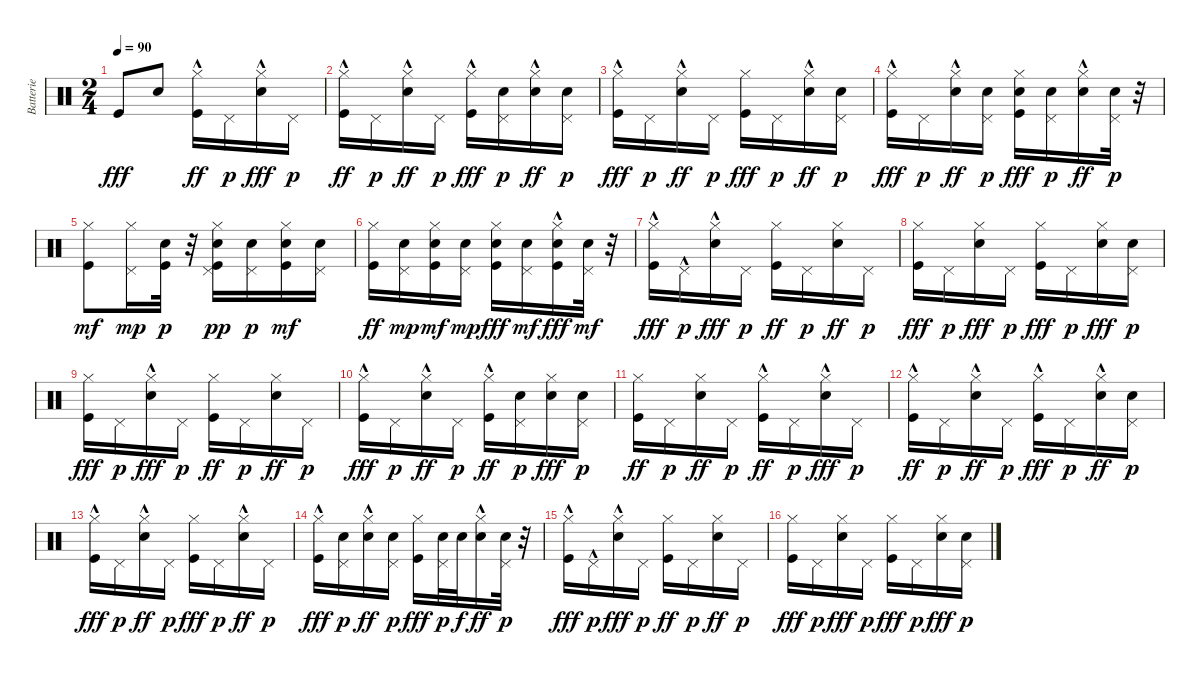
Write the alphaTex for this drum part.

\track ("Batterie" "Batterie") {instrument percussion}
\staff {score}
\articulation defaults
\ts (2 4)
\tempo 90
\clef neutral
\ks c "Kick (hit)".8{dy fff} "Snare (hit) 2".8
("Kick (hit)" "Hi-Hat (closed)"{hac}).16{dy ff} "Pedal Hi-Hat (hit)".16{dy p} ("Snare (hit) 2" "Hi-Hat (closed)"{hac}).16{dy fff} "Pedal Hi-Hat (hit)".16{dy p} |
("Kick (hit)" "Hi-Hat (closed)"{hac}).16{dy ff} "Pedal Hi-Hat (hit)".16{dy p} ("Snare (hit) 2" "Hi-Hat (closed)"{hac}).16{dy ff} "Pedal Hi-Hat (hit)".16{dy p} ("Kick (hit)" "Hi-Hat (closed)"{hac}).16{dy fff} ("Snare (hit) 2" "Pedal Hi-Hat (hit)").16{dy p} ("Snare (hit) 2" "Hi-Hat (closed)"{hac}).16{dy ff} ("Snare (hit) 2" "Pedal Hi-Hat (hit)").16{dy p} |
("Kick (hit)" "Hi-Hat (closed)"{hac}).16{dy fff} "Pedal Hi-Hat (hit)".16{dy p} ("Snare (hit) 2" "Hi-Hat (closed)"{hac}).16{dy ff} "Pedal Hi-Hat (hit)".16{dy p} ("Kick (hit)" "Hi-Hat (closed)").16{dy fff} "Pedal Hi-Hat (hit)".16{dy p} ("Snare (hit) 2" "Hi-Hat (closed)"{hac}).16{dy ff} ("Snare (hit) 2" "Pedal Hi-Hat (hit)").16{dy p} |
("Kick (hit)" "Hi-Hat (closed)"{hac}).16{dy fff} "Pedal Hi-Hat (hit)".16{dy p} ("Snare (hit) 2" "Hi-Hat (closed)"{hac}).16{dy ff} ("Snare (hit) 2" "Pedal Hi-Hat (hit)").16{dy p} ("Kick (hit)" "Snare (hit) 2" "Hi-Hat (closed)").16{dy fff} ("Snare (hit) 2" "Pedal Hi-Hat (hit)").16{dy p} ("Snare (hit) 2" "Hi-Hat (closed)"{hac}).16{dy ff} ("Snare (hit) 2" "Pedal Hi-Hat (hit)").32{dy p} r.32 |
("Kick (hit)" "Hi-Hat (closed)").8{dy mf} ("Hi-Hat (closed)" "Pedal Hi-Hat (hit)").16{dy mp} ("Kick (hit)" "Snare (hit) 2").32{dy p} r.32 ("Kick (hit)" "Snare (hit) 2" "Hi-Hat (closed)" "Pedal Hi-Hat (hit)").16{dy pp} ("Snare (hit) 2" "Pedal Hi-Hat (hit)").16{dy p} ("Kick (hit)" "Snare (hit) 2" "Hi-Hat (closed)").16{dy mf} ("Snare (hit) 2" "Pedal Hi-Hat (hit)").16 |
("Kick (hit)" "Hi-Hat (closed)").16{dy ff} ("Snare (hit) 2" "Pedal Hi-Hat (hit)").16{dy mp} ("Kick (hit)" "Snare (hit) 2" "Hi-Hat (closed)").16{dy mf} ("Snare (hit) 2" "Pedal Hi-Hat (hit)").16{dy mp} ("Kick (hit)" "Snare (hit) 2" "Hi-Hat (closed)").16{dy fff} ("Snare (hit) 2" "Pedal Hi-Hat (hit)").16{dy mf} ("Kick (hit)"{hac} "Snare (hit) 2" "Hi-Hat (closed)").16{dy fff} ("Snare (hit) 2" "Pedal Hi-Hat (hit)").32{dy mf} r.32 |
("Kick (hit)" "Hi-Hat (closed)"{hac}).16{dy fff} "Pedal Hi-Hat (hit)"{hac}.16{dy p} ("Snare (hit) 2" "Hi-Hat (closed)"{hac}).16{dy fff} "Pedal Hi-Hat (hit)".16{dy p} ("Kick (hit)" "Hi-Hat (closed)").16{dy ff} "Pedal Hi-Hat (hit)".16{dy p} ("Snare (hit) 2" "Hi-Hat (closed)").16{dy ff} "Pedal Hi-Hat (hit)".16{dy p} |
("Kick (hit)" "Hi-Hat (closed)").16{dy fff} "Pedal Hi-Hat (hit)".16{dy p} ("Snare (hit) 2" "Hi-Hat (closed)").16{dy fff} "Pedal Hi-Hat (hit)".16{dy p} ("Kick (hit)" "Hi-Hat (closed)").16{dy fff} "Pedal Hi-Hat (hit)".16{dy p} ("Snare (hit) 2" "Hi-Hat (closed)").16{dy fff} ("Snare (hit) 2" "Pedal Hi-Hat (hit)").16{dy p} |
("Kick (hit)" "Hi-Hat (closed)").16{dy fff} "Pedal Hi-Hat (hit)".16{dy p} ("Snare (hit) 2" "Hi-Hat (closed)"{hac}).16{dy fff} "Pedal Hi-Hat (hit)".16{dy p} ("Kick (hit)" "Hi-Hat (closed)").16{dy ff} "Pedal Hi-Hat (hit)".16{dy p} ("Snare (hit) 2" "Hi-Hat (closed)").16{dy ff} "Pedal Hi-Hat (hit)".16{dy p} |
("Kick (hit)" "Hi-Hat (closed)"{hac}).16{dy fff} "Pedal Hi-Hat (hit)".16{dy p} ("Snare (hit) 2" "Hi-Hat (closed)"{hac}).16{dy ff} "Pedal Hi-Hat (hit)".16{dy p} ("Kick (hit)" "Hi-Hat (closed)"{hac}).16{dy ff} ("Snare (hit) 2" "Pedal Hi-Hat (hit)").16{dy p} ("Snare (hit) 2" "Hi-Hat (closed)").16{dy fff} ("Snare (hit) 2" "Pedal Hi-Hat (hit)").16{dy p} |
("Kick (hit)" "Hi-Hat (closed)").16{dy ff} "Pedal Hi-Hat (hit)".16{dy p} ("Snare (hit) 2" "Hi-Hat (closed)").16{dy ff} "Pedal Hi-Hat (hit)".16{dy p} ("Kick (hit)" "Hi-Hat (closed)"{hac}).16{dy ff} "Pedal Hi-Hat (hit)".16{dy p} ("Snare (hit) 2" "Hi-Hat (closed)"{hac}).16{dy fff} "Pedal Hi-Hat (hit)".16{dy p} |
("Kick (hit)" "Hi-Hat (closed)"{hac}).16{dy ff} "Pedal Hi-Hat (hit)".16{dy p} ("Snare (hit) 2" "Hi-Hat (closed)"{hac}).16{dy ff} "Pedal Hi-Hat (hit)".16{dy p} ("Kick (hit)" "Hi-Hat (closed)"{hac}).16{dy fff} "Pedal Hi-Hat (hit)".16{dy p} ("Snare (hit) 2" "Hi-Hat (closed)"{hac}).16{dy ff} ("Snare (hit) 2" "Pedal Hi-Hat (hit)").16{dy p} |
("Kick (hit)" "Hi-Hat (closed)"{hac}).16{dy fff} "Pedal Hi-Hat (hit)".16{dy p} ("Snare (hit) 2" "Hi-Hat (closed)"{hac}).16{dy ff} "Pedal Hi-Hat (hit)".16{dy p} ("Kick (hit)" "Hi-Hat (closed)").16{dy fff} "Pedal Hi-Hat (hit)".16{dy p} ("Snare (hit) 2" "Hi-Hat (closed)"{hac}).16{dy ff} "Pedal Hi-Hat (hit)".16{dy p} |
("Kick (hit)" "Hi-Hat (closed)"{hac}).16{dy fff} ("Snare (hit) 2" "Pedal Hi-Hat (hit)").16{dy p} ("Snare (hit) 2" "Hi-Hat (closed)"{hac}).16{dy ff} ("Snare (hit) 2" "Pedal Hi-Hat (hit)").16{dy p} ("Kick (hit)" "Hi-Hat (closed)").16{dy fff} ("Snare (hit) 2" "Pedal Hi-Hat (hit)").32{dy p} "Snare (hit) 2".32{dy f} ("Snare (hit) 2" "Hi-Hat (closed)"{hac}).16{dy ff} ("Snare (hit) 2" "Pedal Hi-Hat (hit)").32{dy p} r.32 |
("Kick (hit)" "Hi-Hat (closed)"{hac}).16{dy fff} "Pedal Hi-Hat (hit)"{hac}.16{dy p} ("Snare (hit) 2" "Hi-Hat (closed)"{hac}).16{dy fff} "Pedal Hi-Hat (hit)".16{dy p} ("Kick (hit)" "Hi-Hat (closed)").16{dy ff} "Pedal Hi-Hat (hit)".16{dy p} ("Snare (hit) 2" "Hi-Hat (closed)").16{dy ff} "Pedal Hi-Hat (hit)".16{dy p} |
("Kick (hit)" "Hi-Hat (closed)").16{dy fff} "Pedal Hi-Hat (hit)".16{dy p} ("Snare (hit) 2" "Hi-Hat (closed)").16{dy fff} "Pedal Hi-Hat (hit)".16{dy p} ("Kick (hit)" "Hi-Hat (closed)").16{dy fff} "Pedal Hi-Hat (hit)".16{dy p} ("Snare (hit) 2" "Hi-Hat (closed)").16{dy fff} ("Snare (hit) 2" "Pedal Hi-Hat (hit)").16{dy p}
